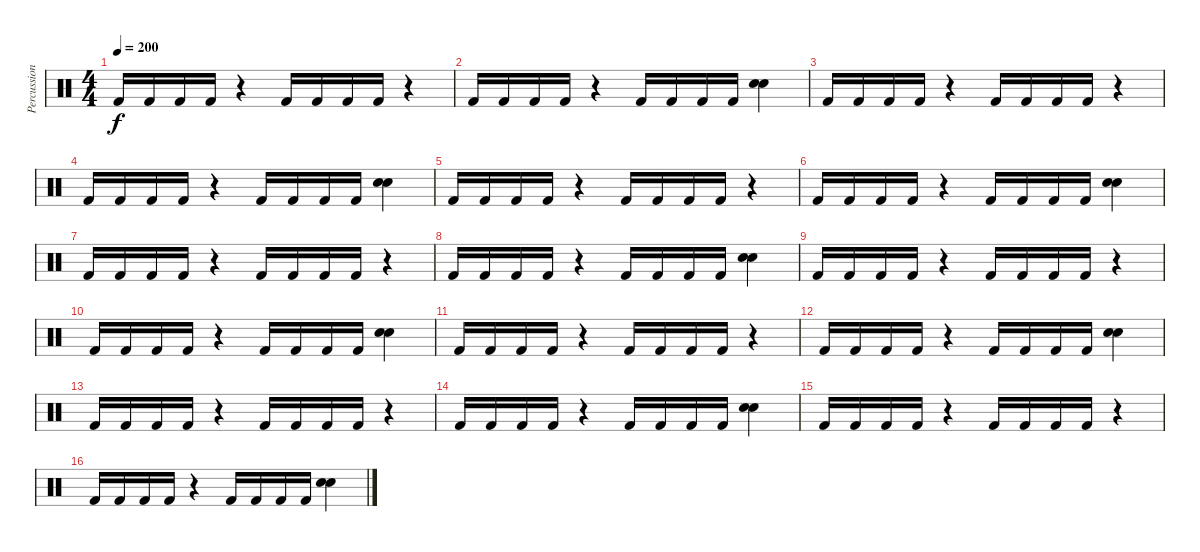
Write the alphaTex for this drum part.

\track ("Percussion" "Percussion") {instrument percussion}
\staff {score}
\articulation defaults
\ts (4 4)
\tempo 200
\clef neutral
\ks c "Kick (hit) 2".16{dy f} "Kick (hit) 2".16 "Kick (hit) 2".16 "Kick (hit) 2".16
r.4 "Kick (hit) 2".16 "Kick (hit) 2".16 "Kick (hit) 2".16 "Kick (hit) 2".16 r.4 |
"Kick (hit) 2".16 "Kick (hit) 2".16 "Kick (hit) 2".16 "Kick (hit) 2".16 r.4 "Kick (hit) 2".16 "Kick (hit) 2".16 "Kick (hit) 2".16 "Kick (hit) 2".16 ("Snare (hit) 2" "Snare (hit) 2").4 |
"Kick (hit) 2".16 "Kick (hit) 2".16 "Kick (hit) 2".16 "Kick (hit) 2".16 r.4 "Kick (hit) 2".16 "Kick (hit) 2".16 "Kick (hit) 2".16 "Kick (hit) 2".16 r.4 |
"Kick (hit) 2".16 "Kick (hit) 2".16 "Kick (hit) 2".16 "Kick (hit) 2".16 r.4 "Kick (hit) 2".16 "Kick (hit) 2".16 "Kick (hit) 2".16 "Kick (hit) 2".16 ("Snare (hit) 2" "Snare (hit) 2").4 |
"Kick (hit) 2".16 "Kick (hit) 2".16 "Kick (hit) 2".16 "Kick (hit) 2".16 r.4 "Kick (hit) 2".16 "Kick (hit) 2".16 "Kick (hit) 2".16 "Kick (hit) 2".16 r.4 |
"Kick (hit) 2".16 "Kick (hit) 2".16 "Kick (hit) 2".16 "Kick (hit) 2".16 r.4 "Kick (hit) 2".16 "Kick (hit) 2".16 "Kick (hit) 2".16 "Kick (hit) 2".16 ("Snare (hit) 2" "Snare (hit) 2").4 |
"Kick (hit) 2".16 "Kick (hit) 2".16 "Kick (hit) 2".16 "Kick (hit) 2".16 r.4 "Kick (hit) 2".16 "Kick (hit) 2".16 "Kick (hit) 2".16 "Kick (hit) 2".16 r.4 |
"Kick (hit) 2".16 "Kick (hit) 2".16 "Kick (hit) 2".16 "Kick (hit) 2".16 r.4 "Kick (hit) 2".16 "Kick (hit) 2".16 "Kick (hit) 2".16 "Kick (hit) 2".16 ("Snare (hit) 2" "Snare (hit) 2").4 |
"Kick (hit) 2".16 "Kick (hit) 2".16 "Kick (hit) 2".16 "Kick (hit) 2".16 r.4 "Kick (hit) 2".16 "Kick (hit) 2".16 "Kick (hit) 2".16 "Kick (hit) 2".16 r.4 |
"Kick (hit) 2".16 "Kick (hit) 2".16 "Kick (hit) 2".16 "Kick (hit) 2".16 r.4 "Kick (hit) 2".16 "Kick (hit) 2".16 "Kick (hit) 2".16 "Kick (hit) 2".16 ("Snare (hit) 2" "Snare (hit) 2").4 |
"Kick (hit) 2".16 "Kick (hit) 2".16 "Kick (hit) 2".16 "Kick (hit) 2".16 r.4 "Kick (hit) 2".16 "Kick (hit) 2".16 "Kick (hit) 2".16 "Kick (hit) 2".16 r.4 |
"Kick (hit) 2".16 "Kick (hit) 2".16 "Kick (hit) 2".16 "Kick (hit) 2".16 r.4 "Kick (hit) 2".16 "Kick (hit) 2".16 "Kick (hit) 2".16 "Kick (hit) 2".16 ("Snare (hit) 2" "Snare (hit) 2").4 |
"Kick (hit) 2".16 "Kick (hit) 2".16 "Kick (hit) 2".16 "Kick (hit) 2".16 r.4 "Kick (hit) 2".16 "Kick (hit) 2".16 "Kick (hit) 2".16 "Kick (hit) 2".16 r.4 |
"Kick (hit) 2".16 "Kick (hit) 2".16 "Kick (hit) 2".16 "Kick (hit) 2".16 r.4 "Kick (hit) 2".16 "Kick (hit) 2".16 "Kick (hit) 2".16 "Kick (hit) 2".16 ("Snare (hit) 2" "Snare (hit) 2").4 |
"Kick (hit) 2".16 "Kick (hit) 2".16 "Kick (hit) 2".16 "Kick (hit) 2".16 r.4 "Kick (hit) 2".16 "Kick (hit) 2".16 "Kick (hit) 2".16 "Kick (hit) 2".16 r.4 |
"Kick (hit) 2".16 "Kick (hit) 2".16 "Kick (hit) 2".16 "Kick (hit) 2".16 r.4 "Kick (hit) 2".16 "Kick (hit) 2".16 "Kick (hit) 2".16 "Kick (hit) 2".16 ("Snare (hit) 2" "Snare (hit) 2").4
